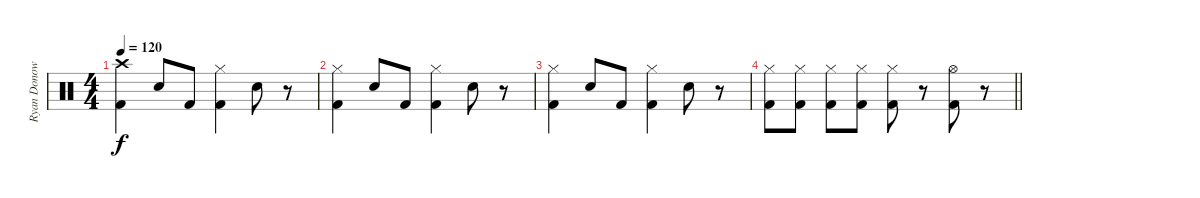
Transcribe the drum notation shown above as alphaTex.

\track ("Ryan Donowho" "Ryan Donow") {instrument percussion}
\staff {score}
\articulation defaults
\ts (4 4)
\tempo 120
\clef neutral
\ks c
("Crash high (hit)" "Kick (hit) 2").4{dy f} "Snare (hit) 2".8 "Kick (hit) 2".8 ("Hi-Hat (closed)" "Kick (hit) 2").4 "Snare (hit) 2".8 r.8 |
("Hi-Hat (closed)" "Kick (hit) 2").4 "Snare (hit) 2".8 "Kick (hit) 2".8 ("Hi-Hat (closed)" "Kick (hit) 2").4 "Snare (hit) 2".8 r.8 |
("Hi-Hat (closed)" "Kick (hit) 2").4 "Snare (hit) 2".8 "Kick (hit) 2".8 ("Hi-Hat (closed)" "Kick (hit) 2").4 "Snare (hit) 2".8 r.8 |
\barLineRight lightlight
("Hi-Hat (closed)" "Kick (hit) 2").8 ("Hi-Hat (closed)" "Kick (hit) 2").8 ("Hi-Hat (closed)" "Kick (hit) 2").8 ("Hi-Hat (closed)" "Kick (hit) 2").8 ("Hi-Hat (closed)" "Kick (hit) 2").8 r.8 ("Hi-Hat (open)" "Kick (hit) 2").8 r.8
